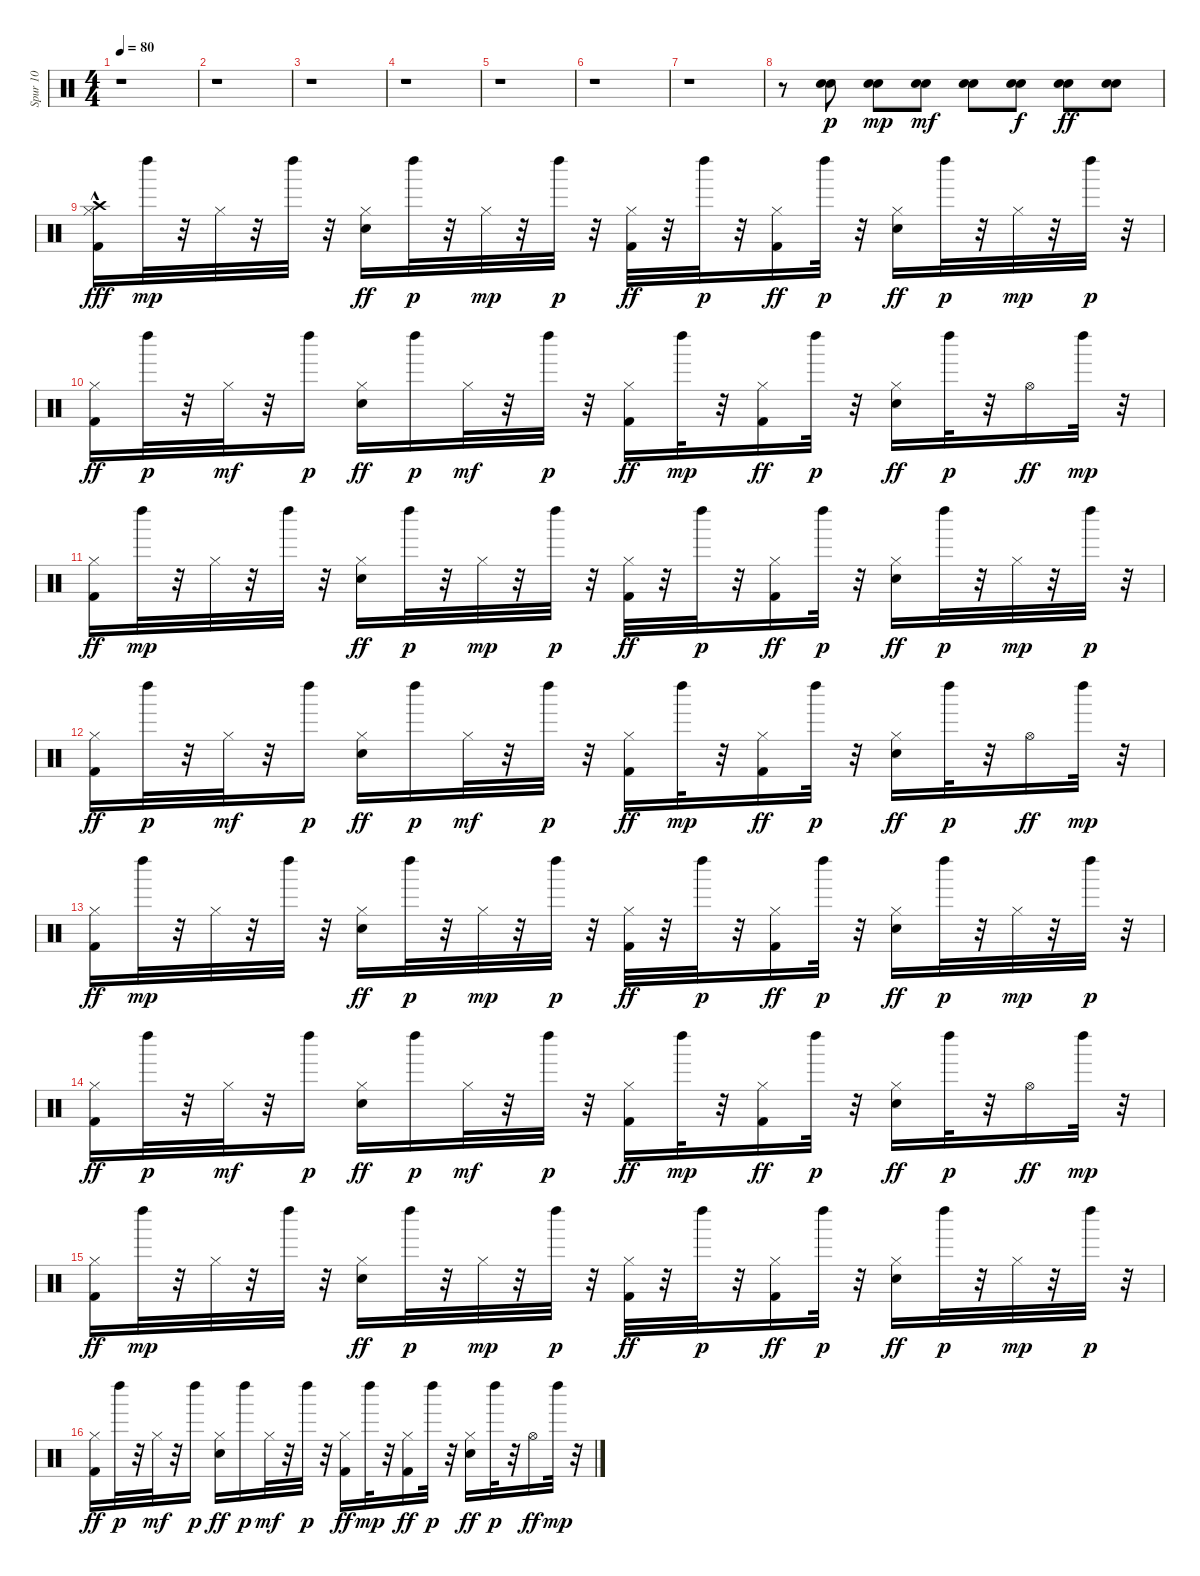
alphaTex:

\track ("Spur 10" "Spur 10") {instrument percussion}
\staff {score}
\articulation defaults
\ts (4 4)
\tempo 80
\clef neutral
\ks c
r.1{dy p} |
r.1 |
r.1 |
r.1 |
r.1 |
r.1 |
r.1 |
r.8 ("Electric Snare (hit)" "Electric Snare (hit)").8 ("Electric Snare (hit)" "Electric Snare (hit)").8{dy mp} ("Electric Snare (hit)" "Electric Snare (hit)").8{dy mf} ("Electric Snare (hit)" "Electric Snare (hit)").8 ("Electric Snare (hit)" "Electric Snare (hit)").8{dy f} ("Electric Snare (hit)" "Electric Snare (hit)").8{dy ff} ("Electric Snare (hit)" "Electric Snare (hit)").8 |
("Hi-Hat (closed)" "Kick (hit) 2" "Crash high (hit)"{hac}).16{dy fff} "Left Maraca (hit)".32{dy mp} r.32 "Hi-Hat (closed)".32 r.32 "Left Maraca (hit)".32 r.32 ("Electric Snare (hit)" "Hi-Hat (closed)").16{dy ff} "Left Maraca (hit)".32{dy p} r.32 "Hi-Hat (closed)".32{dy mp} r.32 "Left Maraca (hit)".32{dy p} r.32 ("Hi-Hat (closed)" "Kick (hit) 2").32{dy ff} r.32 "Left Maraca (hit)".32{dy p} r.32 ("Hi-Hat (closed)" "Kick (hit) 2").16{dy ff} "Left Maraca (hit)".32{dy p} r.32 ("Electric Snare (hit)" "Hi-Hat (closed)").16{dy ff} "Left Maraca (hit)".32{dy p} r.32 "Hi-Hat (closed)".32{dy mp} r.32 "Left Maraca (hit)".32{dy p} r.32 |
("Hi-Hat (closed)" "Kick (hit) 2").16{dy ff} "Left Maraca (hit)".32{dy p} r.32 "Hi-Hat (closed)".32{dy mf} r.32 "Left Maraca (hit)".16{dy p} ("Electric Snare (hit)" "Hi-Hat (closed)").16{dy ff} "Left Maraca (hit)".16{dy p} "Hi-Hat (closed)".32{dy mf} r.32 "Left Maraca (hit)".32{dy p} r.32 ("Hi-Hat (closed)" "Kick (hit) 2").16{dy ff} "Left Maraca (hit)".32{dy mp} r.32 ("Hi-Hat (closed)" "Kick (hit) 2").16{dy ff} "Left Maraca (hit)".32{dy p} r.32 ("Electric Snare (hit)" "Hi-Hat (closed)").16{dy ff} "Left Maraca (hit)".32{dy p} r.32 "Hi-Hat (open)".16{dy ff} "Left Maraca (hit)".32{dy mp} r.32 |
("Hi-Hat (closed)" "Kick (hit) 2").16{dy ff} "Left Maraca (hit)".32{dy mp} r.32 "Hi-Hat (closed)".32 r.32 "Left Maraca (hit)".32 r.32 ("Electric Snare (hit)" "Hi-Hat (closed)").16{dy ff} "Left Maraca (hit)".32{dy p} r.32 "Hi-Hat (closed)".32{dy mp} r.32 "Left Maraca (hit)".32{dy p} r.32 ("Hi-Hat (closed)" "Kick (hit) 2").32{dy ff} r.32 "Left Maraca (hit)".32{dy p} r.32 ("Hi-Hat (closed)" "Kick (hit) 2").16{dy ff} "Left Maraca (hit)".32{dy p} r.32 ("Electric Snare (hit)" "Hi-Hat (closed)").16{dy ff} "Left Maraca (hit)".32{dy p} r.32 "Hi-Hat (closed)".32{dy mp} r.32 "Left Maraca (hit)".32{dy p} r.32 |
("Hi-Hat (closed)" "Kick (hit) 2").16{dy ff} "Left Maraca (hit)".32{dy p} r.32 "Hi-Hat (closed)".32{dy mf} r.32 "Left Maraca (hit)".16{dy p} ("Electric Snare (hit)" "Hi-Hat (closed)").16{dy ff} "Left Maraca (hit)".16{dy p} "Hi-Hat (closed)".32{dy mf} r.32 "Left Maraca (hit)".32{dy p} r.32 ("Hi-Hat (closed)" "Kick (hit) 2").16{dy ff} "Left Maraca (hit)".32{dy mp} r.32 ("Hi-Hat (closed)" "Kick (hit) 2").16{dy ff} "Left Maraca (hit)".32{dy p} r.32 ("Electric Snare (hit)" "Hi-Hat (closed)").16{dy ff} "Left Maraca (hit)".32{dy p} r.32 "Hi-Hat (open)".16{dy ff} "Left Maraca (hit)".32{dy mp} r.32 |
("Hi-Hat (closed)" "Kick (hit) 2").16{dy ff} "Left Maraca (hit)".32{dy mp} r.32 "Hi-Hat (closed)".32 r.32 "Left Maraca (hit)".32 r.32 ("Electric Snare (hit)" "Hi-Hat (closed)").16{dy ff} "Left Maraca (hit)".32{dy p} r.32 "Hi-Hat (closed)".32{dy mp} r.32 "Left Maraca (hit)".32{dy p} r.32 ("Hi-Hat (closed)" "Kick (hit) 2").32{dy ff} r.32 "Left Maraca (hit)".32{dy p} r.32 ("Hi-Hat (closed)" "Kick (hit) 2").16{dy ff} "Left Maraca (hit)".32{dy p} r.32 ("Electric Snare (hit)" "Hi-Hat (closed)").16{dy ff} "Left Maraca (hit)".32{dy p} r.32 "Hi-Hat (closed)".32{dy mp} r.32 "Left Maraca (hit)".32{dy p} r.32 |
("Hi-Hat (closed)" "Kick (hit) 2").16{dy ff} "Left Maraca (hit)".32{dy p} r.32 "Hi-Hat (closed)".32{dy mf} r.32 "Left Maraca (hit)".16{dy p} ("Electric Snare (hit)" "Hi-Hat (closed)").16{dy ff} "Left Maraca (hit)".16{dy p} "Hi-Hat (closed)".32{dy mf} r.32 "Left Maraca (hit)".32{dy p} r.32 ("Hi-Hat (closed)" "Kick (hit) 2").16{dy ff} "Left Maraca (hit)".32{dy mp} r.32 ("Hi-Hat (closed)" "Kick (hit) 2").16{dy ff} "Left Maraca (hit)".32{dy p} r.32 ("Electric Snare (hit)" "Hi-Hat (closed)").16{dy ff} "Left Maraca (hit)".32{dy p} r.32 "Hi-Hat (open)".16{dy ff} "Left Maraca (hit)".32{dy mp} r.32 |
("Hi-Hat (closed)" "Kick (hit) 2").16{dy ff} "Left Maraca (hit)".32{dy mp} r.32 "Hi-Hat (closed)".32 r.32 "Left Maraca (hit)".32 r.32 ("Electric Snare (hit)" "Hi-Hat (closed)").16{dy ff} "Left Maraca (hit)".32{dy p} r.32 "Hi-Hat (closed)".32{dy mp} r.32 "Left Maraca (hit)".32{dy p} r.32 ("Hi-Hat (closed)" "Kick (hit) 2").32{dy ff} r.32 "Left Maraca (hit)".32{dy p} r.32 ("Hi-Hat (closed)" "Kick (hit) 2").16{dy ff} "Left Maraca (hit)".32{dy p} r.32 ("Electric Snare (hit)" "Hi-Hat (closed)").16{dy ff} "Left Maraca (hit)".32{dy p} r.32 "Hi-Hat (closed)".32{dy mp} r.32 "Left Maraca (hit)".32{dy p} r.32 |
("Hi-Hat (closed)" "Kick (hit) 2").16{dy ff} "Left Maraca (hit)".32{dy p} r.32 "Hi-Hat (closed)".32{dy mf} r.32 "Left Maraca (hit)".16{dy p} ("Electric Snare (hit)" "Hi-Hat (closed)").16{dy ff} "Left Maraca (hit)".16{dy p} "Hi-Hat (closed)".32{dy mf} r.32 "Left Maraca (hit)".32{dy p} r.32 ("Hi-Hat (closed)" "Kick (hit) 2").16{dy ff} "Left Maraca (hit)".32{dy mp} r.32 ("Hi-Hat (closed)" "Kick (hit) 2").16{dy ff} "Left Maraca (hit)".32{dy p} r.32 ("Electric Snare (hit)" "Hi-Hat (closed)").16{dy ff} "Left Maraca (hit)".32{dy p} r.32 "Hi-Hat (open)".16{dy ff} "Left Maraca (hit)".32{dy mp} r.32
